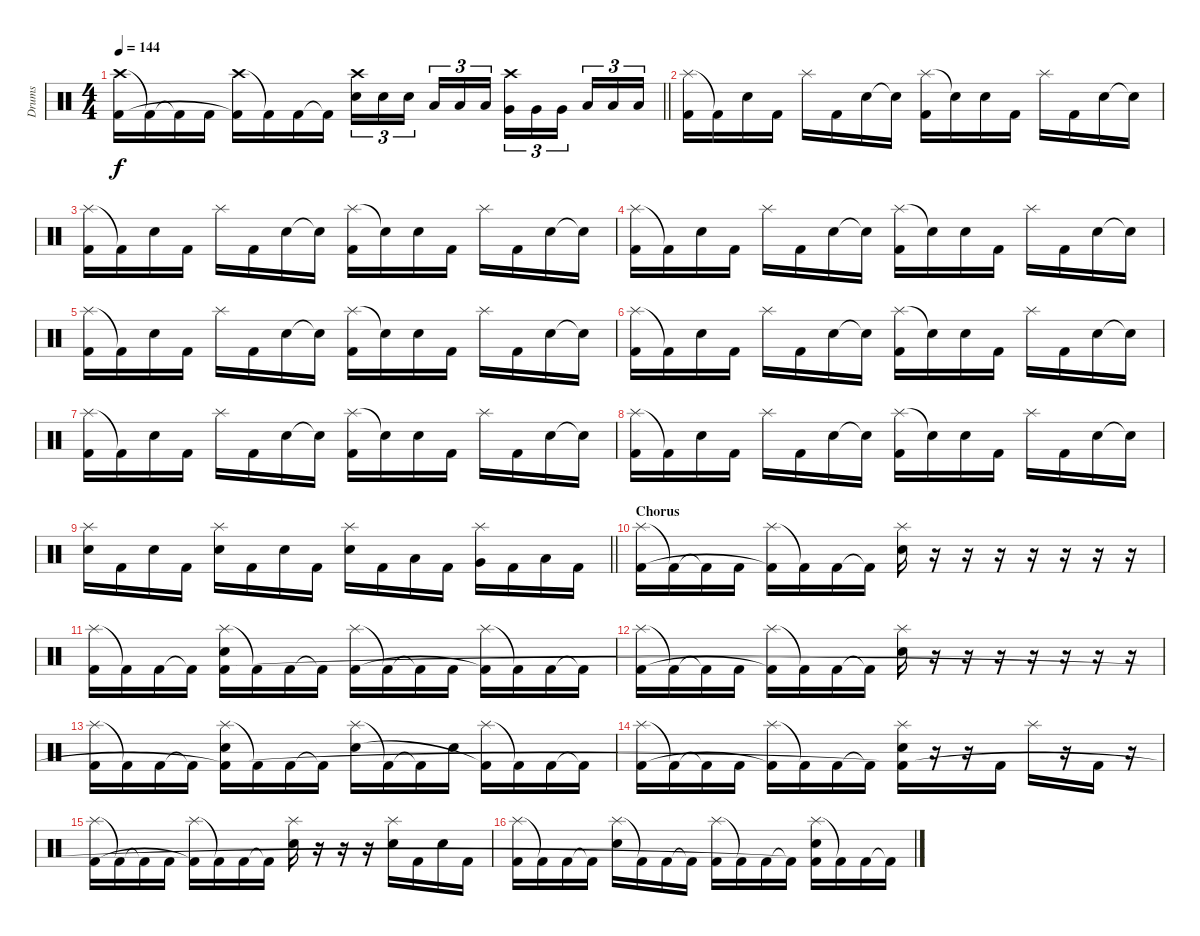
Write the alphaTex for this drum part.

\track ("Drums" "Drums") {instrument percussion}
\staff {score}
\articulation defaults
\ts (4 4)
\tempo 144
\clef neutral
\barLineRight lightlight
\ks c
("Crash high (hit)" "Kick (hit) 2").16{dy f} "Kick (hit) 2"{t}.16 "Kick (hit) 2"{t}.16 "Kick (hit) 2".16 ("Crash high (hit)" "Kick (hit) 2"{t}).16 "Kick (hit) 2"{t}.16 "Kick (hit) 2".16 "Kick (hit) 2"{t}.16 ("Crash high (hit)" "Electric Snare (hit)").16{tu (3 2)} "Electric Snare (hit)".16{tu (3 2)} "Electric Snare (hit)".16{tu (3 2) beam splitsecondary} "Low Tom (hit)".16{tu (3 2)} "Low Tom (hit)".16{tu (3 2)} "Low Tom (hit)".16{tu (3 2)} ("Crash high (hit)" "Very Low Tom (hit)").16{tu (3 2)} "Very Low Tom (hit)".16{tu (3 2)} "Very Low Tom (hit)".16{tu (3 2) beam splitsecondary} "Low Floor Tom (hit)".16{tu (3 2)} "Low Floor Tom (hit)".16{tu (3 2)} "Low Floor Tom (hit)".16{tu (3 2)} |
("Splash (hit)" "Kick (hit) 2").16 "Kick (hit) 2"{t}.16 "Electric Snare (hit)".16 "Kick (hit) 2".16 "Splash (hit)".16 "Kick (hit) 2".16 "Electric Snare (hit)".16 "Snare (hit)"{t}.16 ("Splash (hit)" "Kick (hit) 2").16 "Snare (hit)"{t}.16 "Electric Snare (hit)".16 "Kick (hit) 2".16 "Splash (hit)".16 "Kick (hit) 2".16 "Electric Snare (hit)".16 "Snare (hit)"{t}.16 |
("Splash (hit)" "Kick (hit) 2").16 "Kick (hit) 2"{t}.16 "Electric Snare (hit)".16 "Kick (hit) 2".16 "Splash (hit)".16 "Kick (hit) 2".16 "Electric Snare (hit)".16 "Snare (hit)"{t}.16 ("Splash (hit)" "Kick (hit) 2").16 "Snare (hit)"{t}.16 "Electric Snare (hit)".16 "Kick (hit) 2".16 "Splash (hit)".16 "Kick (hit) 2".16 "Electric Snare (hit)".16 "Snare (hit)"{t}.16 |
("Splash (hit)" "Kick (hit) 2").16 "Kick (hit) 2"{t}.16 "Electric Snare (hit)".16 "Kick (hit) 2".16 "Splash (hit)".16 "Kick (hit) 2".16 "Electric Snare (hit)".16 "Snare (hit)"{t}.16 ("Splash (hit)" "Kick (hit) 2").16 "Snare (hit)"{t}.16 "Electric Snare (hit)".16 "Kick (hit) 2".16 "Splash (hit)".16 "Kick (hit) 2".16 "Electric Snare (hit)".16 "Snare (hit)"{t}.16 |
("Splash (hit)" "Kick (hit) 2").16 "Kick (hit) 2"{t}.16 "Electric Snare (hit)".16 "Kick (hit) 2".16 "Splash (hit)".16 "Kick (hit) 2".16 "Electric Snare (hit)".16 "Snare (hit)"{t}.16 ("Splash (hit)" "Kick (hit) 2").16 "Snare (hit)"{t}.16 "Electric Snare (hit)".16 "Kick (hit) 2".16 "Splash (hit)".16 "Kick (hit) 2".16 "Electric Snare (hit)".16 "Snare (hit)"{t}.16 |
("Splash (hit)" "Kick (hit) 2").16 "Kick (hit) 2"{t}.16 "Electric Snare (hit)".16 "Kick (hit) 2".16 "Splash (hit)".16 "Kick (hit) 2".16 "Electric Snare (hit)".16 "Snare (hit)"{t}.16 ("Splash (hit)" "Kick (hit) 2").16 "Snare (hit)"{t}.16 "Electric Snare (hit)".16 "Kick (hit) 2".16 "Splash (hit)".16 "Kick (hit) 2".16 "Electric Snare (hit)".16 "Snare (hit)"{t}.16 |
("Splash (hit)" "Kick (hit) 2").16 "Kick (hit) 2"{t}.16 "Electric Snare (hit)".16 "Kick (hit) 2".16 "Splash (hit)".16 "Kick (hit) 2".16 "Electric Snare (hit)".16 "Snare (hit)"{t}.16 ("Splash (hit)" "Kick (hit) 2").16 "Snare (hit)"{t}.16 "Electric Snare (hit)".16 "Kick (hit) 2".16 "Splash (hit)".16 "Kick (hit) 2".16 "Electric Snare (hit)".16 "Snare (hit)"{t}.16 |
("Splash (hit)" "Kick (hit) 2").16 "Kick (hit) 2"{t}.16 "Electric Snare (hit)".16 "Kick (hit) 2".16 "Splash (hit)".16 "Kick (hit) 2".16 "Electric Snare (hit)".16 "Snare (hit)"{t}.16 ("Splash (hit)" "Kick (hit) 2").16 "Snare (hit)"{t}.16 "Electric Snare (hit)".16 "Kick (hit) 2".16 "Splash (hit)".16 "Kick (hit) 2".16 "Electric Snare (hit)".16 "Snare (hit)"{t}.16 |
\barLineRight lightlight
("Splash (hit)" "Electric Snare (hit)").16 "Kick (hit) 2".16 "Electric Snare (hit)".16 "Kick (hit) 2".16 ("Splash (hit)" "Electric Snare (hit)").16 "Kick (hit) 2".16 "Electric Snare (hit)".16 "Kick (hit) 2".16 ("Splash (hit)" "Electric Snare (hit)").16 "Kick (hit) 2".16 "Low Tom (hit)".16 "Kick (hit) 2".16 ("Splash (hit)" "Very Low Tom (hit)").16 "Kick (hit) 2".16 "Low Floor Tom (hit)".16 "Kick (hit) 2".16 |
\section ("" "Chorus")
("Splash (hit)" "Kick (hit) 2").16 "Kick (hit) 2"{t}.16 "Kick (hit) 2"{t}.16 "Kick (hit) 2".16 ("Splash (hit)" "Kick (hit) 2"{t}).16 "Kick (hit) 2"{t}.16 "Kick (hit) 2".16 "Kick (hit) 2"{t}.16 ("Splash (hit)" "Electric Snare (hit)").16 r.16 r.16 r.16 r.16 r.16 r.16 r.16 |
("Splash (hit)" "Kick (hit) 2").16 "Kick (hit) 2"{t}.16 "Kick (hit) 2".16 "Kick (hit) 2"{t}.16 ("Splash (hit)" "Electric Snare (hit)" "Kick (hit) 2").16 "Kick (hit) 2"{t}.16 "Kick (hit) 2".16 "Kick (hit) 2"{t}.16 ("Splash (hit)" "Kick (hit) 2").16 "Kick (hit) 2"{t}.16 "Kick (hit) 2"{t}.16 "Kick (hit) 2".16 ("Splash (hit)" "Kick (hit) 2"{t}).16 "Kick (hit) 2"{t}.16 "Kick (hit) 2".16 "Kick (hit) 2"{t}.16 |
("Splash (hit)" "Kick (hit) 2").16 "Kick (hit) 2"{t}.16 "Kick (hit) 2"{t}.16 "Kick (hit) 2".16 ("Splash (hit)" "Kick (hit) 2"{t}).16 "Kick (hit) 2"{t}.16 "Kick (hit) 2".16 "Kick (hit) 2"{t}.16 ("Splash (hit)" "Electric Snare (hit)").16 r.16 r.16 r.16 r.16 r.16 r.16 r.16 |
("Splash (hit)" "Kick (hit) 2").16 "Kick (hit) 2"{t}.16 "Kick (hit) 2".16 "Kick (hit) 2"{t}.16 ("Splash (hit)" "Electric Snare (hit)" "Kick (hit) 2"{t}).16 "Kick (hit) 2"{t}.16 "Kick (hit) 2".16 "Kick (hit) 2"{t}.16 ("Splash (hit)" "Electric Snare (hit)").16 "Kick (hit) 2"{t}.16 "Kick (hit) 2"{t}.16 "Electric Snare (hit)".16 ("Splash (hit)" "Kick (hit) 2"{t}).16 "Kick (hit) 2"{t}.16 "Kick (hit) 2".16 "Kick (hit) 2"{t}.16 |
("Splash (hit)" "Kick (hit) 2").16 "Kick (hit) 2"{t}.16 "Kick (hit) 2"{t}.16 "Kick (hit) 2".16 ("Splash (hit)" "Kick (hit) 2"{t}).16 "Kick (hit) 2"{t}.16 "Kick (hit) 2".16 "Kick (hit) 2"{t}.16 ("Splash (hit)" "Electric Snare (hit)" "Kick (hit) 2"{t}).16 r.16 r.16 "Kick (hit) 2".16 "Splash (hit)".16 r.16 "Kick (hit) 2".16 r.16 |
("Splash (hit)" "Kick (hit) 2").16 "Kick (hit) 2"{t}.16 "Kick (hit) 2"{t}.16 "Kick (hit) 2".16 ("Splash (hit)" "Kick (hit) 2"{t}).16 "Kick (hit) 2"{t}.16 "Kick (hit) 2".16 "Kick (hit) 2"{t}.16 ("Splash (hit)" "Electric Snare (hit)").16 r.16 r.16 r.16 ("Splash (hit)" "Electric Snare (hit)").16 "Kick (hit) 2".16 "Electric Snare (hit)".16 "Kick (hit) 2".16 |
("Splash (hit)" "Kick (hit) 2").16 "Kick (hit) 2"{t}.16 "Kick (hit) 2".16 "Kick (hit) 2"{t}.16 ("Splash (hit)" "Electric Snare (hit)").16 "Kick (hit) 2"{t}.16 "Kick (hit) 2".16 "Kick (hit) 2"{t}.16 ("Splash (hit)" "Kick (hit) 2").16 "Kick (hit) 2"{t}.16 "Kick (hit) 2".16 "Kick (hit) 2"{t}.16 ("Splash (hit)" "Electric Snare (hit)" "Kick (hit) 2"{t}).16 "Kick (hit) 2"{t}.16 "Kick (hit) 2".16 "Kick (hit) 2"{t}.16
